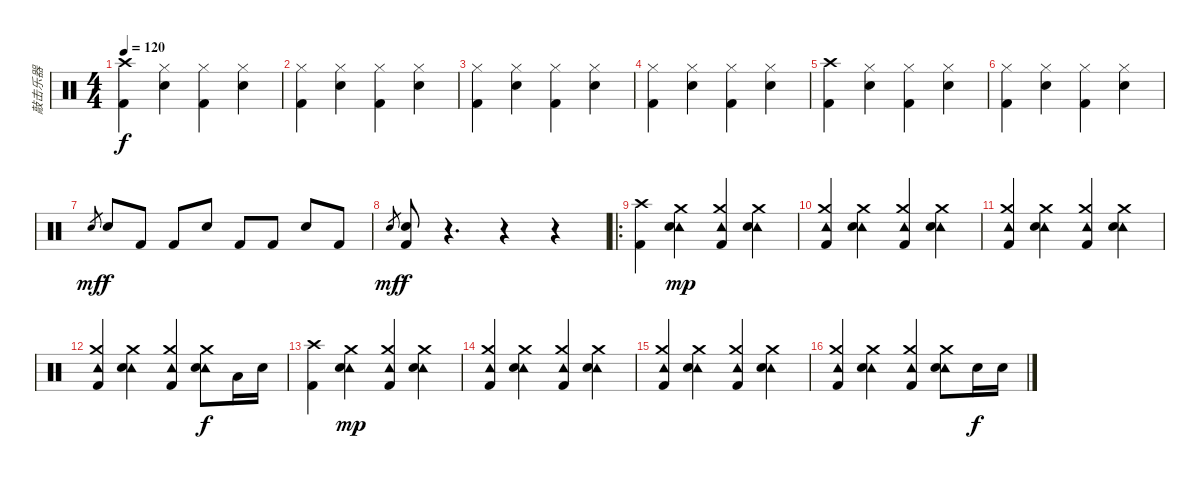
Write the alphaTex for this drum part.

\track ("敲击乐器" "敲击乐器") {instrument percussion}
\staff {score}
\articulation defaults
\ts (4 4)
\tempo 120
\clef neutral
\ks c
("Crash high (hit)" "Kick (hit) 2").4{dy f} ("Hi-Hat (closed)" "Electric Snare (hit)").4 ("Hi-Hat (closed)" "Kick (hit) 2").4 ("Hi-Hat (closed)" "Electric Snare (hit)").4 |
("Hi-Hat (closed)" "Kick (hit) 2").4 ("Hi-Hat (closed)" "Electric Snare (hit)").4 ("Hi-Hat (closed)" "Kick (hit) 2").4 ("Hi-Hat (closed)" "Electric Snare (hit)").4 |
("Hi-Hat (closed)" "Kick (hit) 2").4 ("Hi-Hat (closed)" "Electric Snare (hit)").4 ("Hi-Hat (closed)" "Kick (hit) 2").4 ("Hi-Hat (closed)" "Electric Snare (hit)").4 |
("Hi-Hat (closed)" "Kick (hit) 2").4 ("Hi-Hat (closed)" "Electric Snare (hit)").4 ("Hi-Hat (closed)" "Kick (hit) 2").4 ("Hi-Hat (closed)" "Electric Snare (hit)").4 |
("Crash high (hit)" "Kick (hit) 2").4 ("Hi-Hat (closed)" "Electric Snare (hit)").4 ("Hi-Hat (closed)" "Kick (hit) 2").4 ("Hi-Hat (closed)" "Electric Snare (hit)").4 |
("Hi-Hat (closed)" "Kick (hit) 2").4 ("Hi-Hat (closed)" "Electric Snare (hit)").4 ("Hi-Hat (closed)" "Kick (hit) 2").4 ("Hi-Hat (closed)" "Electric Snare (hit)").4 |
"Electric Snare (hit)".8{gr dy mf} "Electric Snare (hit)".8{dy f} "Kick (hit) 2".8 "Kick (hit) 2".8 "Electric Snare (hit)".8 "Kick (hit) 2".8 "Kick (hit) 2".8 "Electric Snare (hit)".8 "Kick (hit) 2".8 |
"Electric Snare (hit)".8{gr dy mf} ("Electric Snare (hit)" "Kick (hit) 2").8{dy f} r.4{d} r.4 r.4 |
\ro
("Crash high (hit)" "Kick (hit) 2").4 ("Crash medium (hit)" "Tambourine (hit)" "Electric Snare (hit)").4{dy mp} ("Crash medium (hit)" "Tambourine (hit)" "Kick (hit) 2").4 ("Crash medium (hit)" "Tambourine (hit)" "Electric Snare (hit)").4 |
("Crash medium (hit)" "Tambourine (hit)" "Kick (hit) 2").4 ("Crash medium (hit)" "Tambourine (hit)" "Electric Snare (hit)").4 ("Crash medium (hit)" "Tambourine (hit)" "Kick (hit) 2").4 ("Crash medium (hit)" "Tambourine (hit)" "Electric Snare (hit)").4 |
("Crash medium (hit)" "Tambourine (hit)" "Kick (hit) 2").4 ("Crash medium (hit)" "Tambourine (hit)" "Electric Snare (hit)").4 ("Crash medium (hit)" "Tambourine (hit)" "Kick (hit) 2").4 ("Crash medium (hit)" "Tambourine (hit)" "Electric Snare (hit)").4 |
("Crash medium (hit)" "Tambourine (hit)" "Kick (hit) 2").4 ("Crash medium (hit)" "Tambourine (hit)" "Electric Snare (hit)").4 ("Crash medium (hit)" "Tambourine (hit)" "Kick (hit) 2").4 ("Crash medium (hit)" "Tambourine (hit)" "Electric Snare (hit)").8{dy f} "Low Tom (hit)".16 "Electric Snare (hit)".16 |
("Crash high (hit)" "Kick (hit) 2").4 ("Crash medium (hit)" "Tambourine (hit)" "Electric Snare (hit)").4{dy mp} ("Crash medium (hit)" "Tambourine (hit)" "Kick (hit) 2").4 ("Crash medium (hit)" "Tambourine (hit)" "Electric Snare (hit)").4 |
("Crash medium (hit)" "Tambourine (hit)" "Kick (hit) 2").4 ("Crash medium (hit)" "Tambourine (hit)" "Electric Snare (hit)").4 ("Crash medium (hit)" "Tambourine (hit)" "Kick (hit) 2").4 ("Crash medium (hit)" "Tambourine (hit)" "Electric Snare (hit)").4 |
("Crash medium (hit)" "Tambourine (hit)" "Kick (hit) 2").4 ("Crash medium (hit)" "Tambourine (hit)" "Electric Snare (hit)").4 ("Crash medium (hit)" "Tambourine (hit)" "Kick (hit) 2").4 ("Crash medium (hit)" "Tambourine (hit)" "Electric Snare (hit)").4 |
("Crash medium (hit)" "Tambourine (hit)" "Kick (hit) 2").4 ("Crash medium (hit)" "Tambourine (hit)" "Electric Snare (hit)").4 ("Crash medium (hit)" "Tambourine (hit)" "Kick (hit) 2").4 ("Crash medium (hit)" "Tambourine (hit)" "Electric Snare (hit)").8 "Electric Snare (hit)".16{dy f} "Electric Snare (hit)".16
